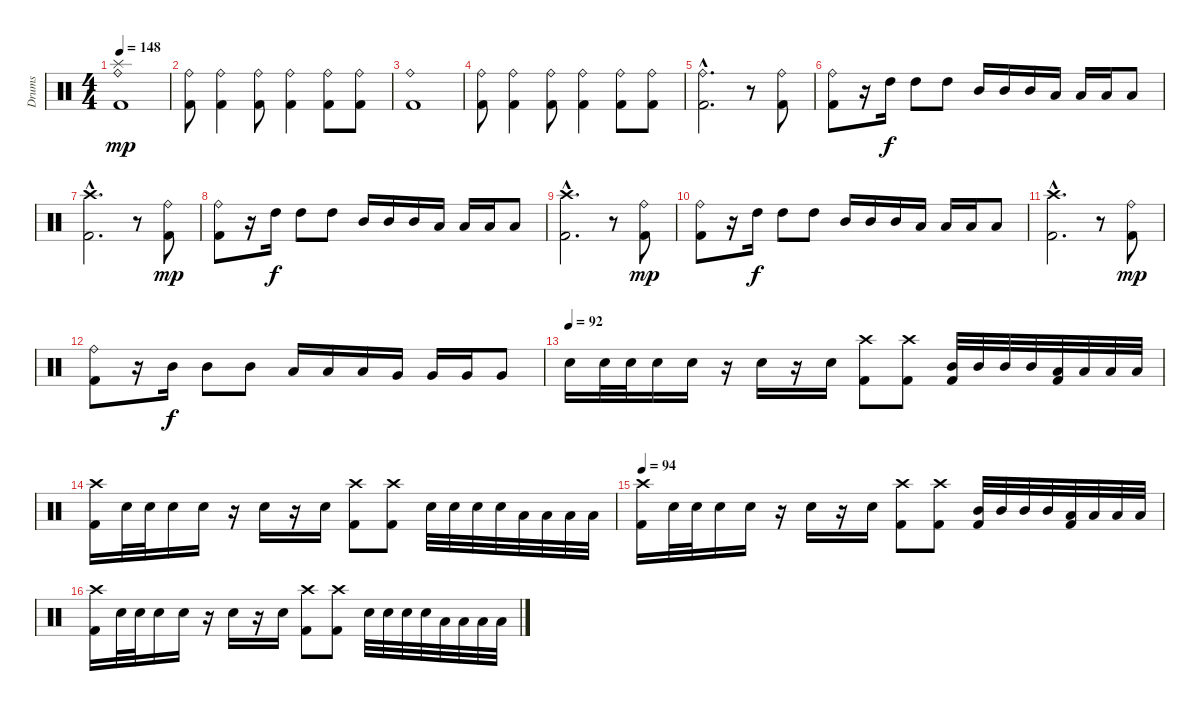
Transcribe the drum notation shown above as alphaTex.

\track ("Drums" "Drums") {instrument percussion}
\staff {score}
\articulation defaults
\ts (4 4)
\tempo 148
\clef neutral
\ks c
("Ride (bell)" "Splash (hit)" "Kick (hit) 2").1{dy mp} |
("Ride (bell)" "Kick (hit) 2").8 ("Ride (bell)" "Kick (hit) 2").4 ("Ride (bell)" "Kick (hit) 2").8 ("Ride (bell)" "Kick (hit) 2").4 ("Ride (bell)" "Kick (hit) 2").8 ("Ride (bell)" "Kick (hit) 2").8 |
("Ride (bell)" "Kick (hit) 2").1 |
("Ride (bell)" "Kick (hit) 2").8 ("Ride (bell)" "Kick (hit) 2").4 ("Ride (bell)" "Kick (hit) 2").8 ("Ride (bell)" "Kick (hit) 2").4 ("Ride (bell)" "Kick (hit) 2").8 ("Ride (bell)" "Kick (hit) 2").8 |
("Ride (bell)"{hac} "Kick (hit) 2"{hac}).2{d} r.8 ("Ride (bell)" "Kick (hit) 2").8 |
("Ride (bell)" "Kick (hit) 2").8 r.16 "High Tom (hit)".16{dy f} "High Tom (hit)".8 "High Tom (hit)".8 "Mid Tom (hit)".16 "Mid Tom (hit)".16 "Mid Tom (hit)".16 "Low Tom (hit)".16 "Low Tom (hit)".16 "Low Tom (hit)".16 "Low Tom (hit)".8 |
("Crash high (hit)"{hac} "Kick (hit) 2"{hac}).2{d} r.8 ("Ride (bell)" "Kick (hit) 2").8{dy mp} |
("Ride (bell)" "Kick (hit) 2").8 r.16 "High Tom (hit)".16{dy f} "High Tom (hit)".8 "High Tom (hit)".8 "Mid Tom (hit)".16 "Mid Tom (hit)".16 "Mid Tom (hit)".16 "Low Tom (hit)".16 "Low Tom (hit)".16 "Low Tom (hit)".16 "Low Tom (hit)".8 |
("Crash high (hit)"{hac} "Kick (hit) 2"{hac}).2{d} r.8 ("Ride (bell)" "Kick (hit) 2").8{dy mp} |
("Ride (bell)" "Kick (hit) 2").8 r.16 "High Tom (hit)".16{dy f} "High Tom (hit)".8 "High Tom (hit)".8 "Mid Tom (hit)".16 "Mid Tom (hit)".16 "Mid Tom (hit)".16 "Low Tom (hit)".16 "Low Tom (hit)".16 "Low Tom (hit)".16 "Low Tom (hit)".8 |
("Crash high (hit)"{hac} "Kick (hit) 2"{hac}).2{d} r.8 ("Ride (bell)" "Kick (hit) 2").8{dy mp} |
("Ride (bell)" "Kick (hit) 2").8 r.16 "Mid Tom (hit)".16{dy f} "Mid Tom (hit)".8 "Mid Tom (hit)".8 "Low Tom (hit)".16 "Low Tom (hit)".16 "Low Tom (hit)".16 "Very Low Tom (hit)".16 "Very Low Tom (hit)".16 "Very Low Tom (hit)".16 "Very Low Tom (hit)".8 |
\tempo (92)
"Snare (hit) 2".16 "Snare (hit) 2".32 "Snare (hit) 2".32 "Snare (hit) 2".16 "Snare (hit) 2".16 r.16 "Snare (hit) 2".16 r.16 "Snare (hit) 2".16 ("Crash high (hit)" "Kick (hit) 2").8 ("Crash high (hit)" "Kick (hit) 2").8 ("Mid Tom (hit)" "Kick (hit) 2").32 "Mid Tom (hit)".32 "Mid Tom (hit)".32 "Mid Tom (hit)".32 ("Low Tom (hit)" "Kick (hit) 2").32 "Low Tom (hit)".32 "Low Tom (hit)".32 "Low Tom (hit)".32 |
("Crash high (hit)" "Kick (hit) 2").16 "Snare (hit) 2".32 "Snare (hit) 2".32 "Snare (hit) 2".16 "Snare (hit) 2".16 r.16 "Snare (hit) 2".16 r.16 "Snare (hit) 2".16 ("Crash high (hit)" "Kick (hit) 2").8 ("Crash high (hit)" "Kick (hit) 2").8 "Snare (hit) 2".32 "Snare (hit) 2".32 "Snare (hit) 2".32 "Snare (hit) 2".32 "Low Tom (hit)".32 "Low Tom (hit)".32 "Low Tom (hit)".32 "Low Tom (hit)".32 |
\tempo 94
("Crash high (hit)" "Kick (hit) 2").16 "Snare (hit) 2".32 "Snare (hit) 2".32 "Snare (hit) 2".16 "Snare (hit) 2".16 r.16 "Snare (hit) 2".16 r.16 "Snare (hit) 2".16 ("Crash high (hit)" "Kick (hit) 2").8 ("Crash high (hit)" "Kick (hit) 2").8 ("Mid Tom (hit)" "Kick (hit) 2").32 "Mid Tom (hit)".32 "Mid Tom (hit)".32 "Mid Tom (hit)".32 ("Low Tom (hit)" "Kick (hit) 2").32 "Low Tom (hit)".32 "Low Tom (hit)".32 "Low Tom (hit)".32 |
("Crash high (hit)" "Kick (hit) 2").16 "Snare (hit) 2".32 "Snare (hit) 2".32 "Snare (hit) 2".16 "Snare (hit) 2".16 r.16 "Snare (hit) 2".16 r.16 "Snare (hit) 2".16 ("Crash high (hit)" "Kick (hit) 2").8 ("Crash high (hit)" "Kick (hit) 2").8 "Snare (hit) 2".32 "Snare (hit) 2".32 "Snare (hit) 2".32 "Snare (hit) 2".32 "Low Tom (hit)".32 "Low Tom (hit)".32 "Low Tom (hit)".32 "Low Tom (hit)".32
